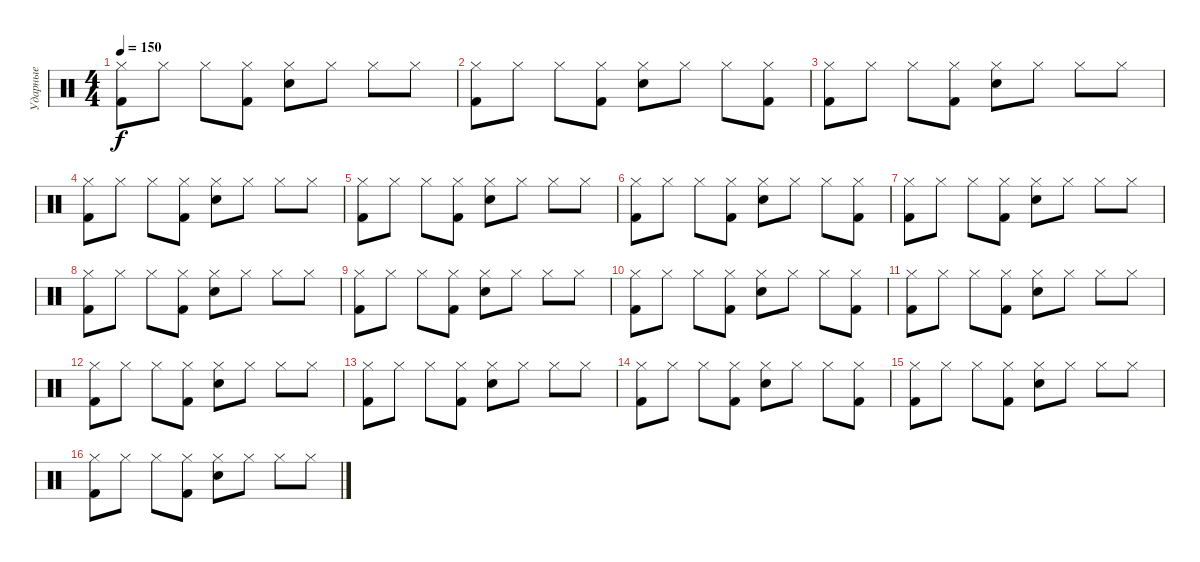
\track ("Ударные" "Ударные") {instrument percussion}
\staff {score}
\articulation defaults
\ts (4 4)
\tempo 150
\clef neutral
\ks c
("Hi-Hat (closed)" "Kick (hit) 2").8{dy f} "Hi-Hat (closed)".8 "Hi-Hat (closed)".8 ("Hi-Hat (closed)" "Kick (hit) 2").8 ("Hi-Hat (closed)" "Electric Snare (hit)").8 "Hi-Hat (closed)".8 "Hi-Hat (closed)".8 "Hi-Hat (closed)".8 |
("Hi-Hat (closed)" "Kick (hit) 2").8 "Hi-Hat (closed)".8 "Hi-Hat (closed)".8 ("Hi-Hat (closed)" "Kick (hit) 2").8 ("Hi-Hat (closed)" "Electric Snare (hit)").8 "Hi-Hat (closed)".8 "Hi-Hat (closed)".8 ("Hi-Hat (closed)" "Kick (hit) 2").8 |
("Hi-Hat (closed)" "Kick (hit) 2").8 "Hi-Hat (closed)".8 "Hi-Hat (closed)".8 ("Hi-Hat (closed)" "Kick (hit) 2").8 ("Hi-Hat (closed)" "Electric Snare (hit)").8 "Hi-Hat (closed)".8 "Hi-Hat (closed)".8 "Hi-Hat (closed)".8 |
("Hi-Hat (closed)" "Kick (hit) 2").8 "Hi-Hat (closed)".8 "Hi-Hat (closed)".8 ("Hi-Hat (closed)" "Kick (hit) 2").8 ("Hi-Hat (closed)" "Electric Snare (hit)").8 "Hi-Hat (closed)".8 "Hi-Hat (closed)".8 "Hi-Hat (closed)".8 |
("Hi-Hat (closed)" "Kick (hit) 2").8 "Hi-Hat (closed)".8 "Hi-Hat (closed)".8 ("Hi-Hat (closed)" "Kick (hit) 2").8 ("Hi-Hat (closed)" "Electric Snare (hit)").8 "Hi-Hat (closed)".8 "Hi-Hat (closed)".8 "Hi-Hat (closed)".8 |
("Hi-Hat (closed)" "Kick (hit) 2").8 "Hi-Hat (closed)".8 "Hi-Hat (closed)".8 ("Hi-Hat (closed)" "Kick (hit) 2").8 ("Hi-Hat (closed)" "Electric Snare (hit)").8 "Hi-Hat (closed)".8 "Hi-Hat (closed)".8 ("Hi-Hat (closed)" "Kick (hit) 2").8 |
("Hi-Hat (closed)" "Kick (hit) 2").8 "Hi-Hat (closed)".8 "Hi-Hat (closed)".8 ("Hi-Hat (closed)" "Kick (hit) 2").8 ("Hi-Hat (closed)" "Electric Snare (hit)").8 "Hi-Hat (closed)".8 "Hi-Hat (closed)".8 "Hi-Hat (closed)".8 |
("Hi-Hat (closed)" "Kick (hit) 2").8 "Hi-Hat (closed)".8 "Hi-Hat (closed)".8 ("Hi-Hat (closed)" "Kick (hit) 2").8 ("Hi-Hat (closed)" "Electric Snare (hit)").8 "Hi-Hat (closed)".8 "Hi-Hat (closed)".8 "Hi-Hat (closed)".8 |
("Hi-Hat (closed)" "Kick (hit) 2").8 "Hi-Hat (closed)".8 "Hi-Hat (closed)".8 ("Hi-Hat (closed)" "Kick (hit) 2").8 ("Hi-Hat (closed)" "Electric Snare (hit)").8 "Hi-Hat (closed)".8 "Hi-Hat (closed)".8 "Hi-Hat (closed)".8 |
("Hi-Hat (closed)" "Kick (hit) 2").8 "Hi-Hat (closed)".8 "Hi-Hat (closed)".8 ("Hi-Hat (closed)" "Kick (hit) 2").8 ("Hi-Hat (closed)" "Electric Snare (hit)").8 "Hi-Hat (closed)".8 "Hi-Hat (closed)".8 ("Hi-Hat (closed)" "Kick (hit) 2").8 |
("Hi-Hat (closed)" "Kick (hit) 2").8 "Hi-Hat (closed)".8 "Hi-Hat (closed)".8 ("Hi-Hat (closed)" "Kick (hit) 2").8 ("Hi-Hat (closed)" "Electric Snare (hit)").8 "Hi-Hat (closed)".8 "Hi-Hat (closed)".8 "Hi-Hat (closed)".8 |
("Hi-Hat (closed)" "Kick (hit) 2").8 "Hi-Hat (closed)".8 "Hi-Hat (closed)".8 ("Hi-Hat (closed)" "Kick (hit) 2").8 ("Hi-Hat (closed)" "Electric Snare (hit)").8 "Hi-Hat (closed)".8 "Hi-Hat (closed)".8 "Hi-Hat (closed)".8 |
("Hi-Hat (closed)" "Kick (hit) 2").8 "Hi-Hat (closed)".8 "Hi-Hat (closed)".8 ("Hi-Hat (closed)" "Kick (hit) 2").8 ("Hi-Hat (closed)" "Electric Snare (hit)").8 "Hi-Hat (closed)".8 "Hi-Hat (closed)".8 "Hi-Hat (closed)".8 |
("Hi-Hat (closed)" "Kick (hit) 2").8 "Hi-Hat (closed)".8 "Hi-Hat (closed)".8 ("Hi-Hat (closed)" "Kick (hit) 2").8 ("Hi-Hat (closed)" "Electric Snare (hit)").8 "Hi-Hat (closed)".8 "Hi-Hat (closed)".8 ("Hi-Hat (closed)" "Kick (hit) 2").8 |
("Hi-Hat (closed)" "Kick (hit) 2").8 "Hi-Hat (closed)".8 "Hi-Hat (closed)".8 ("Hi-Hat (closed)" "Kick (hit) 2").8 ("Hi-Hat (closed)" "Electric Snare (hit)").8 "Hi-Hat (closed)".8 "Hi-Hat (closed)".8 "Hi-Hat (closed)".8 |
("Hi-Hat (closed)" "Kick (hit) 2").8 "Hi-Hat (closed)".8 "Hi-Hat (closed)".8 ("Hi-Hat (closed)" "Kick (hit) 2").8 ("Hi-Hat (closed)" "Electric Snare (hit)").8 "Hi-Hat (closed)".8 "Hi-Hat (closed)".8 "Hi-Hat (closed)".8
